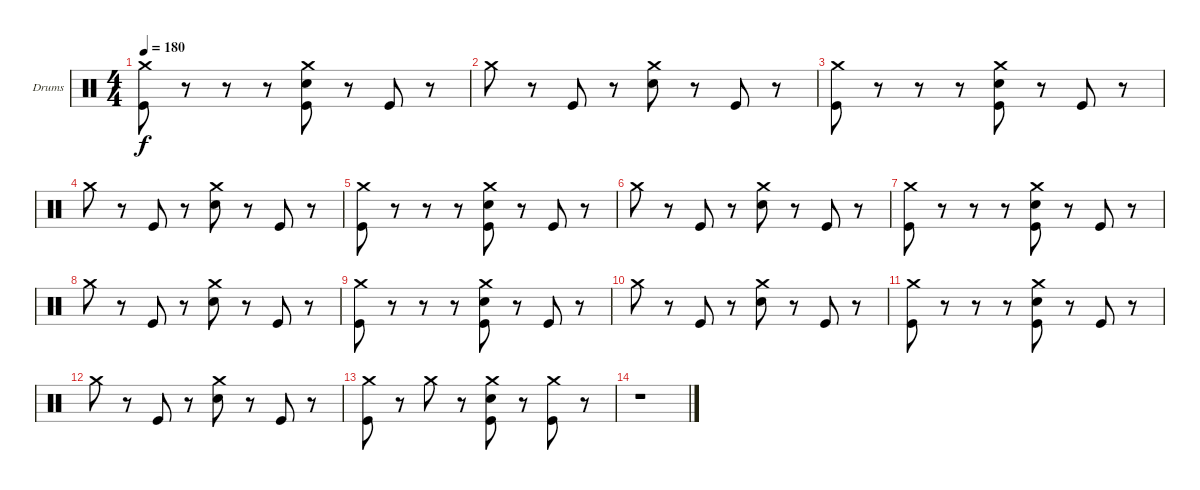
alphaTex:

\defaultSystemsLayout 4
\bracketExtendMode groupsimilarinstruments
\firstSystemTrackNameOrientation horizontal
\otherSystemsTrackNameOrientation horizontal
\track ("Drumkit" "Drums") {instrument percussion}
\staff {score}
\articulation defaults
\ts (4 4)
\tempo 180
\clef neutral
\ks c
("Crash medium (hit)" "Kick (hit)").8{dy f} r.8 r.8 r.8 ("Crash medium (hit)" "Snare (hit) 2" "Kick (hit)").8 r.8 "Kick (hit)".8 r.8 |
"Crash medium (hit)".8 r.8 "Kick (hit)".8 r.8 ("Crash medium (hit)" "Snare (hit) 2").8 r.8 "Kick (hit)".8 r.8 |
("Crash medium (hit)" "Kick (hit)").8 r.8 r.8 r.8 ("Crash medium (hit)" "Snare (hit) 2" "Kick (hit)").8 r.8 "Kick (hit)".8 r.8 |
"Crash medium (hit)".8 r.8 "Kick (hit)".8 r.8 ("Crash medium (hit)" "Snare (hit) 2").8 r.8 "Kick (hit)".8 r.8 |
("Crash medium (hit)" "Kick (hit)").8 r.8 r.8 r.8 ("Crash medium (hit)" "Snare (hit) 2" "Kick (hit)").8 r.8 "Kick (hit)".8 r.8 |
"Crash medium (hit)".8 r.8 "Kick (hit)".8 r.8 ("Crash medium (hit)" "Snare (hit) 2").8 r.8 "Kick (hit)".8 r.8 |
("Crash medium (hit)" "Kick (hit)").8 r.8 r.8 r.8 ("Crash medium (hit)" "Snare (hit) 2" "Kick (hit)").8 r.8 "Kick (hit)".8 r.8 |
"Crash medium (hit)".8 r.8 "Kick (hit)".8 r.8 ("Crash medium (hit)" "Snare (hit) 2").8 r.8 "Kick (hit)".8 r.8 |
("Crash medium (hit)" "Kick (hit)").8 r.8 r.8 r.8 ("Crash medium (hit)" "Snare (hit) 2" "Kick (hit)").8 r.8 "Kick (hit)".8 r.8 |
"Crash medium (hit)".8 r.8 "Kick (hit)".8 r.8 ("Crash medium (hit)" "Snare (hit) 2").8 r.8 "Kick (hit)".8 r.8 |
("Crash medium (hit)" "Kick (hit)").8 r.8 r.8 r.8 ("Crash medium (hit)" "Snare (hit) 2" "Kick (hit)").8 r.8 "Kick (hit)".8 r.8 |
"Crash medium (hit)".8 r.8 "Kick (hit)".8 r.8 ("Crash medium (hit)" "Snare (hit) 2").8 r.8 "Kick (hit)".8 r.8 |
("Crash medium (hit)" "Kick (hit)").8 r.8 "Crash medium (hit)".8 r.8 ("Crash medium (hit)" "Snare (hit) 2" "Kick (hit)").8 r.8 ("Crash medium (hit)" "Kick (hit)").8 r.8 |
r.1
